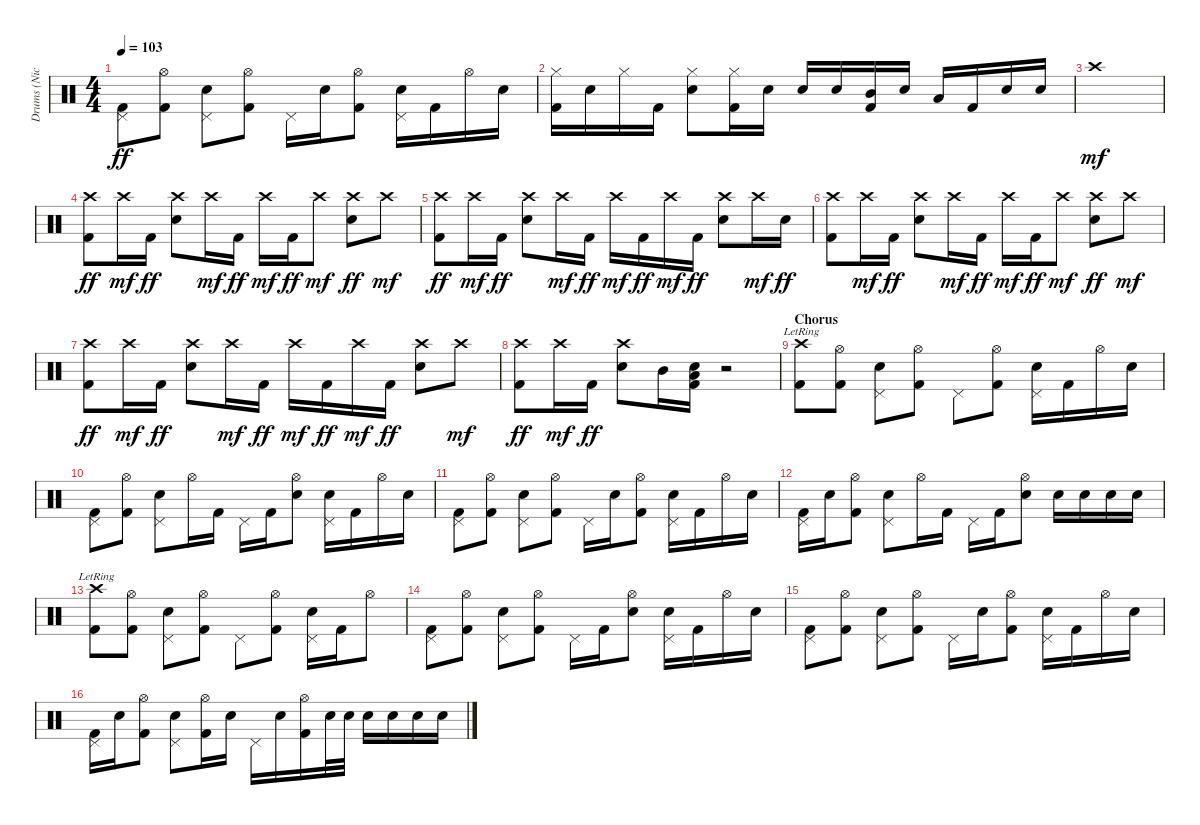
\track ("Drums (Nick Oshiro)" "Drums (Nic") {instrument percussion}
\staff {score}
\articulation defaults
\ts (4 4)
\tempo 103
\clef neutral
\ks c
("Pedal Hi-Hat (hit)" "Kick (hit) 2").8{dy ff} ("Hi-Hat (open)" "Kick (hit) 2").8 ("Pedal Hi-Hat (hit)" "Snare (hit) 2").8 ("Hi-Hat (open)" "Kick (hit) 2").8 "Pedal Hi-Hat (hit)".16 "Snare (hit) 2".16 ("Hi-Hat (open)" "Kick (hit) 2").8 ("Pedal Hi-Hat (hit)" "Snare (hit) 2").16 "Kick (hit) 2".16 "Hi-Hat (open)".16 "Snare (hit) 2".16 |
("Hi-Hat (closed)" "Kick (hit) 2").16 "Snare (hit) 2".16 "Hi-Hat (closed)".16 "Kick (hit) 2".16 ("Hi-Hat (closed)" "Snare (hit) 2").8 ("Hi-Hat (closed)" "Kick (hit) 2").16 "Snare (hit) 2".16 "Snare (hit) 2".16 "Snare (hit) 2".16 ("Mid Tom (hit)" "Kick (hit) 2").16 "Snare (hit) 2".16 "Low Tom (hit)".16 "Kick (hit) 2".16 "Snare (hit) 2".16 "Snare (hit) 2".16 |
"Crash high (hit)".1{dy mf} |
("Crash high (hit)" "Kick (hit) 2").8{dy ff} "Crash high (hit)".16{dy mf} "Kick (hit) 2".16{dy ff} ("Crash high (hit)" "Snare (hit) 2").8 "Crash high (hit)".16{dy mf} "Kick (hit) 2".16{dy ff} "Crash high (hit)".16{dy mf} "Kick (hit) 2".16{dy ff} "Crash high (hit)".8{dy mf} ("Crash high (hit)" "Snare (hit) 2").8{dy ff} "Crash high (hit)".8{dy mf} |
("Crash high (hit)" "Kick (hit) 2").8{dy ff} "Crash high (hit)".16{dy mf} "Kick (hit) 2".16{dy ff} ("Crash high (hit)" "Snare (hit) 2").8 "Crash high (hit)".16{dy mf} "Kick (hit) 2".16{dy ff} "Crash high (hit)".16{dy mf} "Kick (hit) 2".16{dy ff} "Crash high (hit)".16{dy mf} "Kick (hit) 2".16{dy ff} ("Crash high (hit)" "Snare (hit) 2").8 "Crash high (hit)".16{dy mf} "Snare (hit) 2".16{dy ff} |
("Crash high (hit)" "Kick (hit) 2").8 "Crash high (hit)".16{dy mf} "Kick (hit) 2".16{dy ff} ("Crash high (hit)" "Snare (hit) 2").8 "Crash high (hit)".16{dy mf} "Kick (hit) 2".16{dy ff} "Crash high (hit)".16{dy mf} "Kick (hit) 2".16{dy ff} "Crash high (hit)".8{dy mf} ("Crash high (hit)" "Snare (hit) 2").8{dy ff} "Crash high (hit)".8{dy mf} |
("Crash high (hit)" "Kick (hit) 2").8{dy ff} "Crash high (hit)".16{dy mf} "Kick (hit) 2".16{dy ff} ("Crash high (hit)" "Snare (hit) 2").8 "Crash high (hit)".16{dy mf} "Kick (hit) 2".16{dy ff} "Crash high (hit)".16{dy mf} "Kick (hit) 2".16{dy ff} "Crash high (hit)".16{dy mf} "Kick (hit) 2".16{dy ff} ("Crash high (hit)" "Snare (hit) 2").8 "Crash high (hit)".8{dy mf} |
("Crash high (hit)" "Kick (hit) 2").8{dy ff} "Crash high (hit)".16{dy mf} "Kick (hit) 2".16{dy ff} ("Crash high (hit)" "Snare (hit) 2").8 "Mid Tom (hit)".16 ("Low Tom (hit)" "Snare (hit) 2" "Kick (hit) 2").16 r.2 |
\section ("" "Chorus")
("Crash high (hit)"{lr} "Kick (hit) 2").8 ("Hi-Hat (open)" "Kick (hit) 2").8 ("Pedal Hi-Hat (hit)" "Snare (hit) 2").8 ("Hi-Hat (open)" "Kick (hit) 2").8 "Pedal Hi-Hat (hit)".8 ("Hi-Hat (open)" "Kick (hit) 2").8 ("Pedal Hi-Hat (hit)" "Snare (hit) 2").16 "Kick (hit) 2".16 "Hi-Hat (open)".16 "Snare (hit) 2".16 |
("Pedal Hi-Hat (hit)" "Kick (hit) 2").8 ("Hi-Hat (open)" "Kick (hit) 2").8 ("Pedal Hi-Hat (hit)" "Snare (hit) 2").8 "Hi-Hat (open)".16 "Kick (hit) 2".16 "Pedal Hi-Hat (hit)".16 "Kick (hit) 2".16 ("Hi-Hat (open)" "Snare (hit) 2").8 ("Pedal Hi-Hat (hit)" "Snare (hit) 2").16 "Kick (hit) 2".16 "Hi-Hat (open)".16 "Snare (hit) 2".16 |
("Pedal Hi-Hat (hit)" "Kick (hit) 2").8 ("Hi-Hat (open)" "Kick (hit) 2").8 ("Pedal Hi-Hat (hit)" "Snare (hit) 2").8 ("Hi-Hat (open)" "Kick (hit) 2").8 "Pedal Hi-Hat (hit)".16 "Snare (hit) 2".16 ("Hi-Hat (open)" "Kick (hit) 2").8 ("Pedal Hi-Hat (hit)" "Snare (hit) 2").16 "Kick (hit) 2".16 "Hi-Hat (open)".16 "Snare (hit) 2".16 |
("Pedal Hi-Hat (hit)" "Kick (hit) 2").16 "Snare (hit) 2".16 ("Hi-Hat (open)" "Kick (hit) 2").8 ("Pedal Hi-Hat (hit)" "Snare (hit) 2").8 "Hi-Hat (open)".16 "Kick (hit) 2".16 "Pedal Hi-Hat (hit)".16 "Kick (hit) 2".16 ("Hi-Hat (open)" "Snare (hit) 2").8 "Snare (hit) 2".16 "Snare (hit) 2".16 "Snare (hit) 2".16 "Snare (hit) 2".16 |
("Crash high (hit)"{lr} "Kick (hit) 2").8 ("Hi-Hat (open)" "Kick (hit) 2").8 ("Pedal Hi-Hat (hit)" "Snare (hit) 2").8 ("Hi-Hat (open)" "Kick (hit) 2").8 "Pedal Hi-Hat (hit)".8 ("Hi-Hat (open)" "Kick (hit) 2").8 ("Pedal Hi-Hat (hit)" "Snare (hit) 2").16 "Kick (hit) 2".16 "Hi-Hat (open)".8 |
("Pedal Hi-Hat (hit)" "Kick (hit) 2").8 ("Hi-Hat (open)" "Kick (hit) 2").8 ("Pedal Hi-Hat (hit)" "Snare (hit) 2").8 ("Hi-Hat (open)" "Kick (hit) 2").8 "Pedal Hi-Hat (hit)".16 "Kick (hit) 2".16 ("Hi-Hat (open)" "Snare (hit) 2").8 ("Pedal Hi-Hat (hit)" "Snare (hit) 2").16 "Kick (hit) 2".16 "Hi-Hat (open)".16 "Snare (hit) 2".16 |
("Pedal Hi-Hat (hit)" "Kick (hit) 2").8 ("Hi-Hat (open)" "Kick (hit) 2").8 ("Pedal Hi-Hat (hit)" "Snare (hit) 2").8 ("Hi-Hat (open)" "Kick (hit) 2").8 "Pedal Hi-Hat (hit)".16 "Snare (hit) 2".16 ("Hi-Hat (open)" "Kick (hit) 2").8 ("Pedal Hi-Hat (hit)" "Snare (hit) 2").16 "Kick (hit) 2".16 "Hi-Hat (open)".16 "Snare (hit) 2".16 |
("Pedal Hi-Hat (hit)" "Kick (hit) 2").16 "Snare (hit) 2".16 ("Hi-Hat (open)" "Kick (hit) 2").8 ("Pedal Hi-Hat (hit)" "Snare (hit) 2").8 ("Hi-Hat (open)" "Kick (hit) 2").16 "Snare (hit) 2".16 "Pedal Hi-Hat (hit)".16 "Snare (hit) 2".16 ("Hi-Hat (open)" "Kick (hit) 2").16 "Snare (hit) 2".32 "Snare (hit) 2".32 "Snare (hit) 2".16 "Snare (hit) 2".16 "Snare (hit) 2".16 "Snare (hit) 2".16
